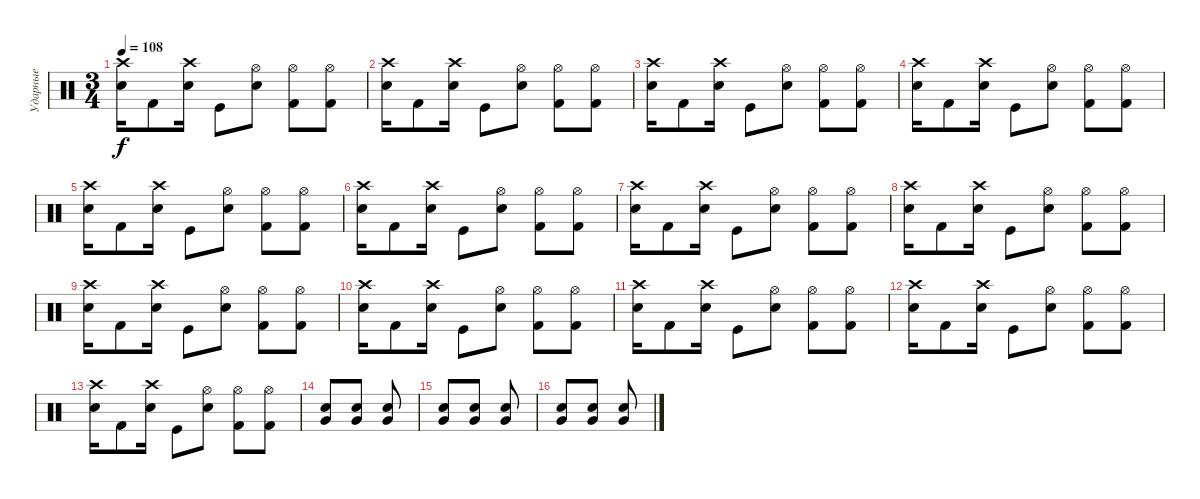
\track ("Ударные" "Ударные") {instrument percussion}
\staff {score}
\articulation defaults
\ts (3 4)
\tempo 108
\clef neutral
\ks c
("Snare (hit) 2" "Crash high (hit)").16{dy f} "Kick (hit) 2".8 ("Snare (hit) 2" "Crash high (hit)").16 "Kick (hit)".8 ("Snare (hit) 2" "Hi-Hat (open)").8 ("Kick (hit) 2" "Hi-Hat (open)").8 ("Kick (hit) 2" "Hi-Hat (open)").8 |
("Snare (hit) 2" "Crash high (hit)").16 "Kick (hit) 2".8 ("Snare (hit) 2" "Crash high (hit)").16 "Kick (hit)".8 ("Snare (hit) 2" "Hi-Hat (open)").8 ("Kick (hit) 2" "Hi-Hat (open)").8 ("Kick (hit) 2" "Hi-Hat (open)").8 |
("Snare (hit) 2" "Crash high (hit)").16 "Kick (hit) 2".8 ("Snare (hit) 2" "Crash high (hit)").16 "Kick (hit)".8 ("Snare (hit) 2" "Hi-Hat (open)").8 ("Kick (hit) 2" "Hi-Hat (open)").8 ("Kick (hit) 2" "Hi-Hat (open)").8 |
("Snare (hit) 2" "Crash high (hit)").16 "Kick (hit) 2".8 ("Snare (hit) 2" "Crash high (hit)").16 "Kick (hit)".8 ("Snare (hit) 2" "Hi-Hat (open)").8 ("Kick (hit) 2" "Hi-Hat (open)").8 ("Kick (hit) 2" "Hi-Hat (open)").8 |
("Snare (hit) 2" "Crash high (hit)").16 "Kick (hit) 2".8 ("Snare (hit) 2" "Crash high (hit)").16 "Kick (hit)".8 ("Snare (hit) 2" "Hi-Hat (open)").8 ("Kick (hit) 2" "Hi-Hat (open)").8 ("Kick (hit) 2" "Hi-Hat (open)").8 |
("Snare (hit) 2" "Crash high (hit)").16 "Kick (hit) 2".8 ("Snare (hit) 2" "Crash high (hit)").16 "Kick (hit)".8 ("Snare (hit) 2" "Hi-Hat (open)").8 ("Kick (hit) 2" "Hi-Hat (open)").8 ("Kick (hit) 2" "Hi-Hat (open)").8 |
("Snare (hit) 2" "Crash high (hit)").16 "Kick (hit) 2".8 ("Snare (hit) 2" "Crash high (hit)").16 "Kick (hit)".8 ("Snare (hit) 2" "Hi-Hat (open)").8 ("Kick (hit) 2" "Hi-Hat (open)").8 ("Kick (hit) 2" "Hi-Hat (open)").8 |
("Snare (hit) 2" "Crash high (hit)").16 "Kick (hit) 2".8 ("Snare (hit) 2" "Crash high (hit)").16 "Kick (hit)".8 ("Snare (hit) 2" "Hi-Hat (open)").8 ("Kick (hit) 2" "Hi-Hat (open)").8 ("Kick (hit) 2" "Hi-Hat (open)").8 |
("Snare (hit) 2" "Crash high (hit)").16 "Kick (hit) 2".8 ("Snare (hit) 2" "Crash high (hit)").16 "Kick (hit)".8 ("Snare (hit) 2" "Hi-Hat (open)").8 ("Kick (hit) 2" "Hi-Hat (open)").8 ("Kick (hit) 2" "Hi-Hat (open)").8 |
("Snare (hit) 2" "Crash high (hit)").16 "Kick (hit) 2".8 ("Snare (hit) 2" "Crash high (hit)").16 "Kick (hit)".8 ("Snare (hit) 2" "Hi-Hat (open)").8 ("Kick (hit) 2" "Hi-Hat (open)").8 ("Kick (hit) 2" "Hi-Hat (open)").8 |
("Snare (hit) 2" "Crash high (hit)").16 "Kick (hit) 2".8 ("Snare (hit) 2" "Crash high (hit)").16 "Kick (hit)".8 ("Snare (hit) 2" "Hi-Hat (open)").8 ("Kick (hit) 2" "Hi-Hat (open)").8 ("Kick (hit) 2" "Hi-Hat (open)").8 |
("Snare (hit) 2" "Crash high (hit)").16 "Kick (hit) 2".8 ("Snare (hit) 2" "Crash high (hit)").16 "Kick (hit)".8 ("Snare (hit) 2" "Hi-Hat (open)").8 ("Kick (hit) 2" "Hi-Hat (open)").8 ("Kick (hit) 2" "Hi-Hat (open)").8 |
("Snare (hit) 2" "Crash high (hit)").16 "Kick (hit) 2".8 ("Snare (hit) 2" "Crash high (hit)").16 "Kick (hit)".8 ("Snare (hit) 2" "Hi-Hat (open)").8 ("Kick (hit) 2" "Hi-Hat (open)").8 ("Kick (hit) 2" "Hi-Hat (open)").8 |
("Very Low Tom (hit)" "Snare (hit) 2").8 ("Very Low Tom (hit)" "Snare (hit) 2").8 ("Very Low Tom (hit)" "Snare (hit) 2").8 |
("Very Low Tom (hit)" "Snare (hit) 2").8 ("Very Low Tom (hit)" "Snare (hit) 2").8 ("Very Low Tom (hit)" "Snare (hit) 2").8 |
("Very Low Tom (hit)" "Snare (hit) 2").8 ("Very Low Tom (hit)" "Snare (hit) 2").8 ("Very Low Tom (hit)" "Snare (hit) 2").8
